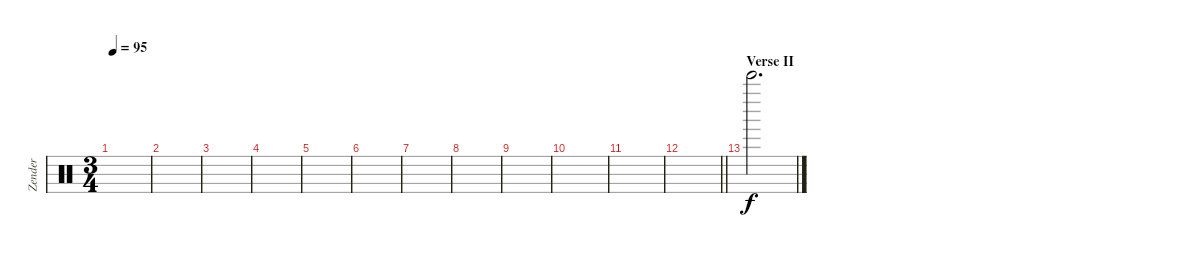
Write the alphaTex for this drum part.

\track ("Zender" "Zender") {instrument percussion}
\staff {score}
\articulation defaults
\ts (3 4)
\tempo 95
\clef neutral
\ks c
|
|
|
|
|
|
|
|
|
|
|
\barLineRight lightlight
|
\section ("" "Verse II")
"Bell Tree (hit)".2{d}
